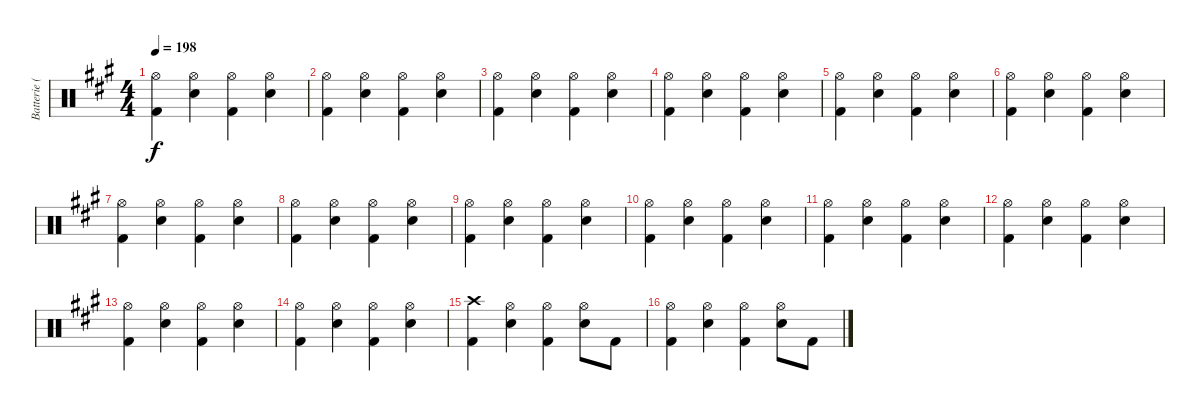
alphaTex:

\track ("Batterie (Phil Roud)" "Batterie (") {instrument percussion}
\staff {score}
\articulation defaults
\ts (4 4)
\tempo 198
\clef neutral
\ks a
("Hi-Hat (open)" "Kick (hit) 2").4{dy f} ("Hi-Hat (open)" "Snare (hit) 2").4 ("Hi-Hat (open)" "Kick (hit) 2").4 ("Hi-Hat (open)" "Snare (hit) 2").4 |
("Hi-Hat (open)" "Kick (hit) 2").4 ("Hi-Hat (open)" "Snare (hit) 2").4 ("Hi-Hat (open)" "Kick (hit) 2").4 ("Hi-Hat (open)" "Snare (hit) 2").4 |
("Hi-Hat (open)" "Kick (hit) 2").4 ("Hi-Hat (open)" "Snare (hit) 2").4 ("Hi-Hat (open)" "Kick (hit) 2").4 ("Hi-Hat (open)" "Snare (hit) 2").4 |
("Hi-Hat (open)" "Kick (hit) 2").4 ("Hi-Hat (open)" "Snare (hit) 2").4 ("Hi-Hat (open)" "Kick (hit) 2").4 ("Hi-Hat (open)" "Snare (hit) 2").4 |
("Hi-Hat (open)" "Kick (hit) 2").4 ("Hi-Hat (open)" "Snare (hit) 2").4 ("Hi-Hat (open)" "Kick (hit) 2").4 ("Hi-Hat (open)" "Snare (hit) 2").4 |
("Hi-Hat (open)" "Kick (hit) 2").4 ("Hi-Hat (open)" "Snare (hit) 2").4 ("Hi-Hat (open)" "Kick (hit) 2").4 ("Hi-Hat (open)" "Snare (hit) 2").4 |
("Hi-Hat (open)" "Kick (hit) 2").4 ("Hi-Hat (open)" "Snare (hit) 2").4 ("Hi-Hat (open)" "Kick (hit) 2").4 ("Hi-Hat (open)" "Snare (hit) 2").4 |
("Hi-Hat (open)" "Kick (hit) 2").4 ("Hi-Hat (open)" "Snare (hit) 2").4 ("Hi-Hat (open)" "Kick (hit) 2").4 ("Hi-Hat (open)" "Snare (hit) 2").4 |
("Hi-Hat (open)" "Kick (hit) 2").4 ("Hi-Hat (open)" "Snare (hit) 2").4 ("Hi-Hat (open)" "Kick (hit) 2").4 ("Hi-Hat (open)" "Snare (hit) 2").4 |
("Hi-Hat (open)" "Kick (hit) 2").4 ("Hi-Hat (open)" "Snare (hit) 2").4 ("Hi-Hat (open)" "Kick (hit) 2").4 ("Hi-Hat (open)" "Snare (hit) 2").4 |
("Hi-Hat (open)" "Kick (hit) 2").4 ("Hi-Hat (open)" "Snare (hit) 2").4 ("Hi-Hat (open)" "Kick (hit) 2").4 ("Hi-Hat (open)" "Snare (hit) 2").4 |
("Hi-Hat (open)" "Kick (hit) 2").4 ("Hi-Hat (open)" "Snare (hit) 2").4 ("Hi-Hat (open)" "Kick (hit) 2").4 ("Hi-Hat (open)" "Snare (hit) 2").4 |
("Hi-Hat (open)" "Kick (hit) 2").4 ("Hi-Hat (open)" "Snare (hit) 2").4 ("Hi-Hat (open)" "Kick (hit) 2").4 ("Hi-Hat (open)" "Snare (hit) 2").4 |
("Hi-Hat (open)" "Kick (hit) 2").4 ("Hi-Hat (open)" "Snare (hit) 2").4 ("Hi-Hat (open)" "Kick (hit) 2").4 ("Hi-Hat (open)" "Snare (hit) 2").4 |
("Crash high (hit)" "Kick (hit) 2").4 ("Hi-Hat (open)" "Snare (hit) 2").4 ("Hi-Hat (open)" "Kick (hit) 2").4 ("Hi-Hat (open)" "Snare (hit) 2").8 "Kick (hit) 2".8 |
("Hi-Hat (open)" "Kick (hit) 2").4 ("Hi-Hat (open)" "Snare (hit) 2").4 ("Hi-Hat (open)" "Kick (hit) 2").4 ("Hi-Hat (open)" "Snare (hit) 2").8 "Kick (hit) 2".8
